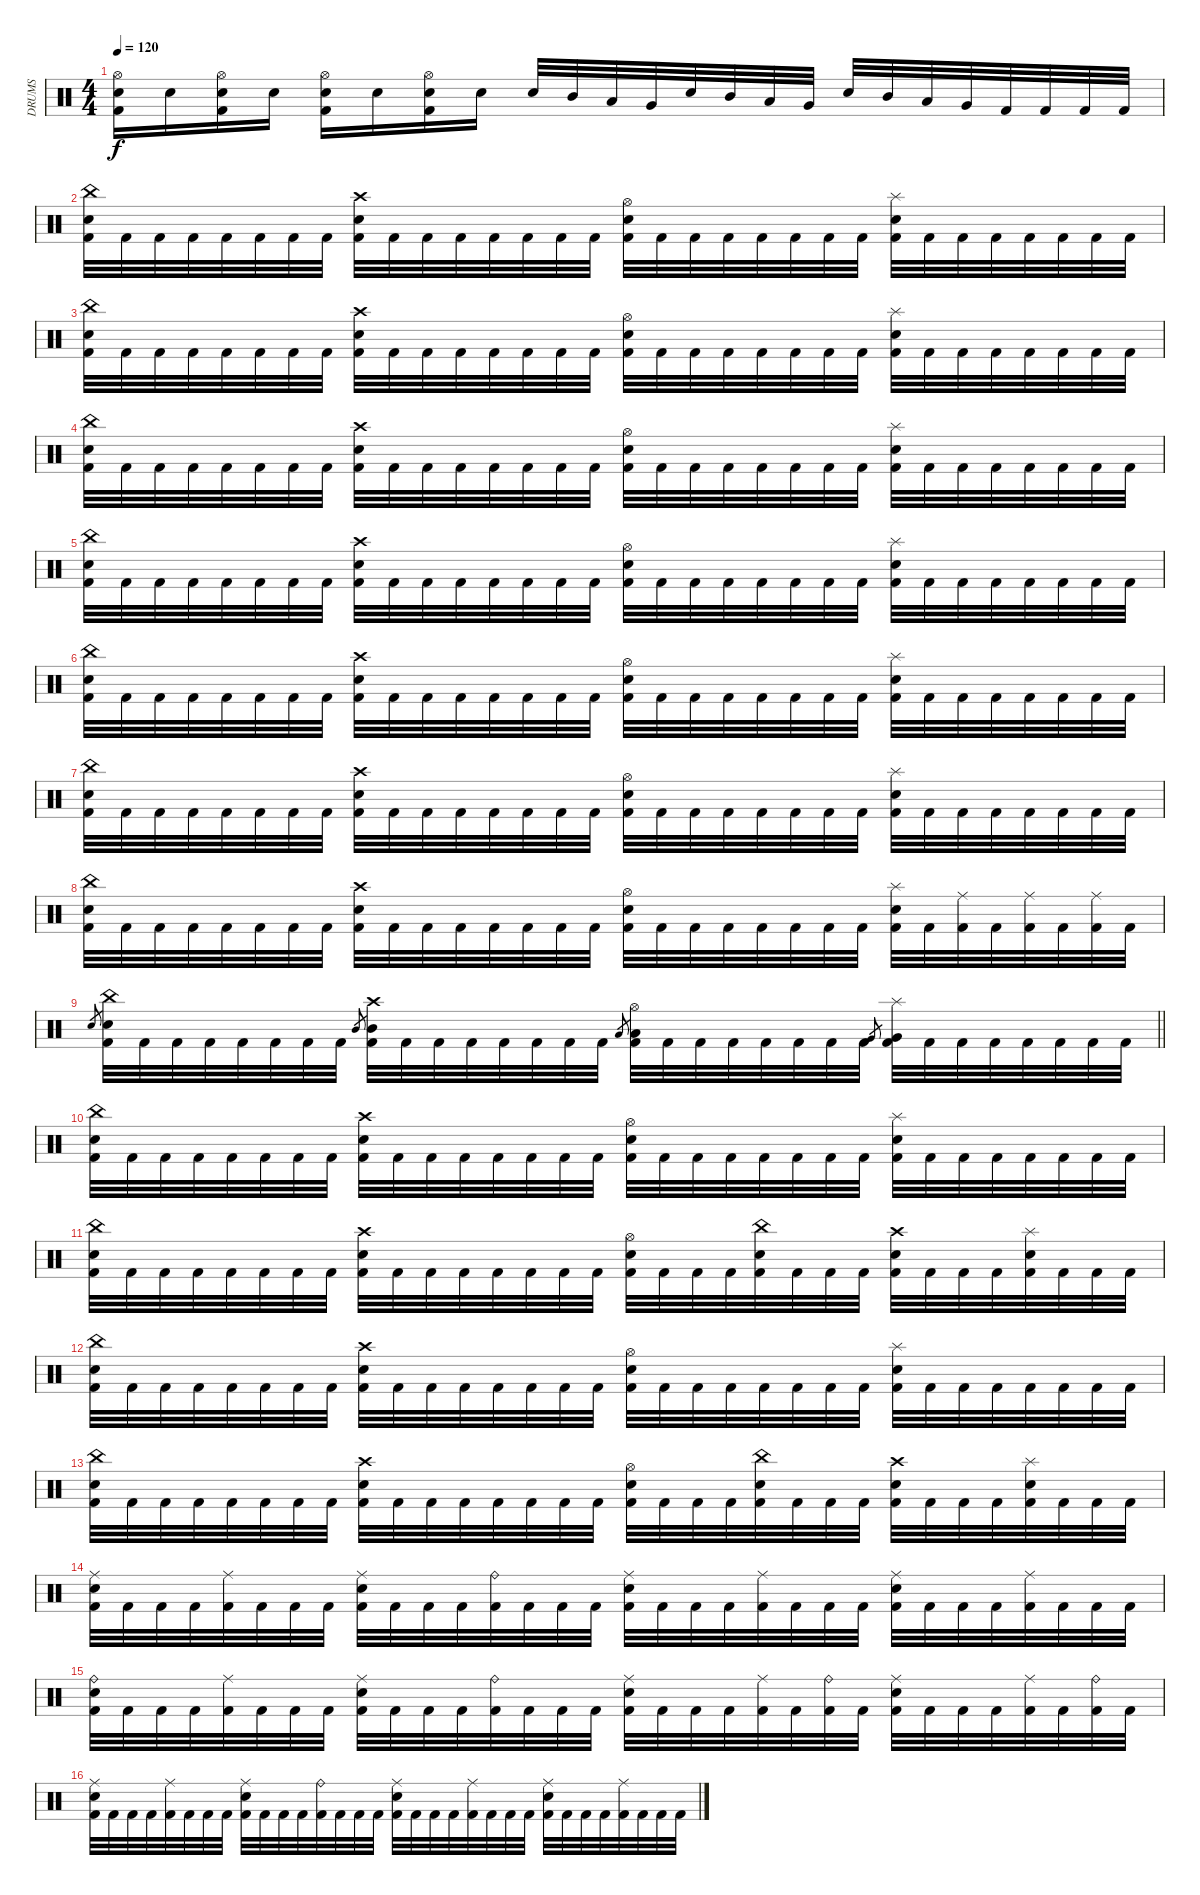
\track ("DRUMS" "DRUMS") {instrument percussion}
\staff {score}
\articulation defaults
\ts (4 4)
\tempo 120
\clef neutral
\ks c
("Hi-Hat (open)" "Electric Snare (hit)" "Kick (hit) 2").16{dy f} "Electric Snare (hit)".16 ("Hi-Hat (open)" "Electric Snare (hit)" "Kick (hit) 2").16 "Electric Snare (hit)".16 ("Hi-Hat (open)" "Electric Snare (hit)" "Kick (hit) 2").16 "Electric Snare (hit)".16 ("Hi-Hat (open)" "Electric Snare (hit)" "Kick (hit) 2").16 "Electric Snare (hit)".16 "Electric Snare (hit)".32 "Mid Tom (hit)".32 "Low Tom (hit)".32 "Very Low Tom (hit)".32 "Electric Snare (hit)".32 "Mid Tom (hit)".32 "Low Tom (hit)".32 "Very Low Tom (hit)".32 "Electric Snare (hit)".32 "Mid Tom (hit)".32 "Low Tom (hit)".32 "Very Low Tom (hit)".32 "Kick (hit) 2".32 "Kick (hit) 2".32 "Kick (hit) 2".32 "Kick (hit) 2".32 |
("China (hit)" "Electric Snare (hit)" "Kick (hit) 2").32 "Kick (hit) 2".32 "Kick (hit) 2".32 "Kick (hit) 2".32 "Kick (hit) 2".32 "Kick (hit) 2".32 "Kick (hit) 2".32 "Kick (hit) 2".32 ("Crash high (hit)" "Electric Snare (hit)" "Kick (hit) 2").32 "Kick (hit) 2".32 "Kick (hit) 2".32 "Kick (hit) 2".32 "Kick (hit) 2".32 "Kick (hit) 2".32 "Kick (hit) 2".32 "Kick (hit) 2".32 ("Hi-Hat (open)" "Electric Snare (hit)" "Kick (hit) 2").32 "Kick (hit) 2".32 "Kick (hit) 2".32 "Kick (hit) 2".32 "Kick (hit) 2".32 "Kick (hit) 2".32 "Kick (hit) 2".32 "Kick (hit) 2".32 ("Splash (hit)" "Electric Snare (hit)" "Kick (hit) 2").32 "Kick (hit) 2".32 "Kick (hit) 2".32 "Kick (hit) 2".32 "Kick (hit) 2".32 "Kick (hit) 2".32 "Kick (hit) 2".32 "Kick (hit) 2".32 |
("China (hit)" "Electric Snare (hit)" "Kick (hit) 2").32 "Kick (hit) 2".32 "Kick (hit) 2".32 "Kick (hit) 2".32 "Kick (hit) 2".32 "Kick (hit) 2".32 "Kick (hit) 2".32 "Kick (hit) 2".32 ("Crash high (hit)" "Electric Snare (hit)" "Kick (hit) 2").32 "Kick (hit) 2".32 "Kick (hit) 2".32 "Kick (hit) 2".32 "Kick (hit) 2".32 "Kick (hit) 2".32 "Kick (hit) 2".32 "Kick (hit) 2".32 ("Hi-Hat (open)" "Electric Snare (hit)" "Kick (hit) 2").32 "Kick (hit) 2".32 "Kick (hit) 2".32 "Kick (hit) 2".32 "Kick (hit) 2".32 "Kick (hit) 2".32 "Kick (hit) 2".32 "Kick (hit) 2".32 ("Splash (hit)" "Electric Snare (hit)" "Kick (hit) 2").32 "Kick (hit) 2".32 "Kick (hit) 2".32 "Kick (hit) 2".32 "Kick (hit) 2".32 "Kick (hit) 2".32 "Kick (hit) 2".32 "Kick (hit) 2".32 |
("China (hit)" "Electric Snare (hit)" "Kick (hit) 2").32 "Kick (hit) 2".32 "Kick (hit) 2".32 "Kick (hit) 2".32 "Kick (hit) 2".32 "Kick (hit) 2".32 "Kick (hit) 2".32 "Kick (hit) 2".32 ("Crash high (hit)" "Electric Snare (hit)" "Kick (hit) 2").32 "Kick (hit) 2".32 "Kick (hit) 2".32 "Kick (hit) 2".32 "Kick (hit) 2".32 "Kick (hit) 2".32 "Kick (hit) 2".32 "Kick (hit) 2".32 ("Hi-Hat (open)" "Electric Snare (hit)" "Kick (hit) 2").32 "Kick (hit) 2".32 "Kick (hit) 2".32 "Kick (hit) 2".32 "Kick (hit) 2".32 "Kick (hit) 2".32 "Kick (hit) 2".32 "Kick (hit) 2".32 ("Splash (hit)" "Electric Snare (hit)" "Kick (hit) 2").32 "Kick (hit) 2".32 "Kick (hit) 2".32 "Kick (hit) 2".32 "Kick (hit) 2".32 "Kick (hit) 2".32 "Kick (hit) 2".32 "Kick (hit) 2".32 |
("China (hit)" "Electric Snare (hit)" "Kick (hit) 2").32 "Kick (hit) 2".32 "Kick (hit) 2".32 "Kick (hit) 2".32 "Kick (hit) 2".32 "Kick (hit) 2".32 "Kick (hit) 2".32 "Kick (hit) 2".32 ("Crash high (hit)" "Electric Snare (hit)" "Kick (hit) 2").32 "Kick (hit) 2".32 "Kick (hit) 2".32 "Kick (hit) 2".32 "Kick (hit) 2".32 "Kick (hit) 2".32 "Kick (hit) 2".32 "Kick (hit) 2".32 ("Hi-Hat (open)" "Electric Snare (hit)" "Kick (hit) 2").32 "Kick (hit) 2".32 "Kick (hit) 2".32 "Kick (hit) 2".32 "Kick (hit) 2".32 "Kick (hit) 2".32 "Kick (hit) 2".32 "Kick (hit) 2".32 ("Splash (hit)" "Electric Snare (hit)" "Kick (hit) 2").32 "Kick (hit) 2".32 "Kick (hit) 2".32 "Kick (hit) 2".32 "Kick (hit) 2".32 "Kick (hit) 2".32 "Kick (hit) 2".32 "Kick (hit) 2".32 |
("China (hit)" "Electric Snare (hit)" "Kick (hit) 2").32 "Kick (hit) 2".32 "Kick (hit) 2".32 "Kick (hit) 2".32 "Kick (hit) 2".32 "Kick (hit) 2".32 "Kick (hit) 2".32 "Kick (hit) 2".32 ("Crash high (hit)" "Electric Snare (hit)" "Kick (hit) 2").32 "Kick (hit) 2".32 "Kick (hit) 2".32 "Kick (hit) 2".32 "Kick (hit) 2".32 "Kick (hit) 2".32 "Kick (hit) 2".32 "Kick (hit) 2".32 ("Hi-Hat (open)" "Electric Snare (hit)" "Kick (hit) 2").32 "Kick (hit) 2".32 "Kick (hit) 2".32 "Kick (hit) 2".32 "Kick (hit) 2".32 "Kick (hit) 2".32 "Kick (hit) 2".32 "Kick (hit) 2".32 ("Splash (hit)" "Electric Snare (hit)" "Kick (hit) 2").32 "Kick (hit) 2".32 "Kick (hit) 2".32 "Kick (hit) 2".32 "Kick (hit) 2".32 "Kick (hit) 2".32 "Kick (hit) 2".32 "Kick (hit) 2".32 |
("China (hit)" "Electric Snare (hit)" "Kick (hit) 2").32 "Kick (hit) 2".32 "Kick (hit) 2".32 "Kick (hit) 2".32 "Kick (hit) 2".32 "Kick (hit) 2".32 "Kick (hit) 2".32 "Kick (hit) 2".32 ("Crash high (hit)" "Electric Snare (hit)" "Kick (hit) 2").32 "Kick (hit) 2".32 "Kick (hit) 2".32 "Kick (hit) 2".32 "Kick (hit) 2".32 "Kick (hit) 2".32 "Kick (hit) 2".32 "Kick (hit) 2".32 ("Hi-Hat (open)" "Electric Snare (hit)" "Kick (hit) 2").32 "Kick (hit) 2".32 "Kick (hit) 2".32 "Kick (hit) 2".32 "Kick (hit) 2".32 "Kick (hit) 2".32 "Kick (hit) 2".32 "Kick (hit) 2".32 ("Splash (hit)" "Electric Snare (hit)" "Kick (hit) 2").32 "Kick (hit) 2".32 "Kick (hit) 2".32 "Kick (hit) 2".32 "Kick (hit) 2".32 "Kick (hit) 2".32 "Kick (hit) 2".32 "Kick (hit) 2".32 |
("China (hit)" "Electric Snare (hit)" "Kick (hit) 2").32 "Kick (hit) 2".32 "Kick (hit) 2".32 "Kick (hit) 2".32 "Kick (hit) 2".32 "Kick (hit) 2".32 "Kick (hit) 2".32 "Kick (hit) 2".32 ("Crash high (hit)" "Electric Snare (hit)" "Kick (hit) 2").32 "Kick (hit) 2".32 "Kick (hit) 2".32 "Kick (hit) 2".32 "Kick (hit) 2".32 "Kick (hit) 2".32 "Kick (hit) 2".32 "Kick (hit) 2".32 ("Hi-Hat (open)" "Electric Snare (hit)" "Kick (hit) 2").32 "Kick (hit) 2".32 "Kick (hit) 2".32 "Kick (hit) 2".32 "Kick (hit) 2".32 "Kick (hit) 2".32 "Kick (hit) 2".32 "Kick (hit) 2".32 ("Splash (hit)" "Electric Snare (hit)" "Kick (hit) 2").32 "Kick (hit) 2".32 ("Ride (middle)" "Kick (hit) 2").32 "Kick (hit) 2".32 ("Ride (middle)" "Kick (hit) 2").32 "Kick (hit) 2".32 ("Ride (middle)" "Kick (hit) 2").32 "Kick (hit) 2".32 |
\barLineRight lightlight "Electric Snare (hit)".8{gr}
("China (hit)" "Electric Snare (hit)" "Kick (hit) 2").32 "Kick (hit) 2".32 "Kick (hit) 2".32 "Kick (hit) 2".32 "Kick (hit) 2".32 "Kick (hit) 2".32 "Kick (hit) 2".32 "Kick (hit) 2".32 "Mid Tom (hit)".8{gr} ("Crash high (hit)" "Mid Tom (hit)" "Kick (hit) 2").32 "Kick (hit) 2".32 "Kick (hit) 2".32 "Kick (hit) 2".32 "Kick (hit) 2".32 "Kick (hit) 2".32 "Kick (hit) 2".32 "Kick (hit) 2".32 "Low Tom (hit)".8{gr} ("Hi-Hat (open)" "Low Tom (hit)" "Kick (hit) 2").32 "Kick (hit) 2".32 "Kick (hit) 2".32 "Kick (hit) 2".32 "Kick (hit) 2".32 "Kick (hit) 2".32 "Kick (hit) 2".32 "Kick (hit) 2".32 "Very Low Tom (hit)".8{gr} ("Splash (hit)" "Very Low Tom (hit)" "Kick (hit) 2").32 "Kick (hit) 2".32 "Kick (hit) 2".32 "Kick (hit) 2".32 "Kick (hit) 2".32 "Kick (hit) 2".32 "Kick (hit) 2".32 "Kick (hit) 2".32 |
("China (hit)" "Electric Snare (hit)" "Kick (hit) 2").32 "Kick (hit) 2".32 "Kick (hit) 2".32 "Kick (hit) 2".32 "Kick (hit) 2".32 "Kick (hit) 2".32 "Kick (hit) 2".32 "Kick (hit) 2".32 ("Crash high (hit)" "Electric Snare (hit)" "Kick (hit) 2").32 "Kick (hit) 2".32 "Kick (hit) 2".32 "Kick (hit) 2".32 "Kick (hit) 2".32 "Kick (hit) 2".32 "Kick (hit) 2".32 "Kick (hit) 2".32 ("Hi-Hat (open)" "Electric Snare (hit)" "Kick (hit) 2").32 "Kick (hit) 2".32 "Kick (hit) 2".32 "Kick (hit) 2".32 "Kick (hit) 2".32 "Kick (hit) 2".32 "Kick (hit) 2".32 "Kick (hit) 2".32 ("Splash (hit)" "Electric Snare (hit)" "Kick (hit) 2").32 "Kick (hit) 2".32 "Kick (hit) 2".32 "Kick (hit) 2".32 "Kick (hit) 2".32 "Kick (hit) 2".32 "Kick (hit) 2".32 "Kick (hit) 2".32 |
("China (hit)" "Electric Snare (hit)" "Kick (hit) 2").32 "Kick (hit) 2".32 "Kick (hit) 2".32 "Kick (hit) 2".32 "Kick (hit) 2".32 "Kick (hit) 2".32 "Kick (hit) 2".32 "Kick (hit) 2".32 ("Crash high (hit)" "Electric Snare (hit)" "Kick (hit) 2").32 "Kick (hit) 2".32 "Kick (hit) 2".32 "Kick (hit) 2".32 "Kick (hit) 2".32 "Kick (hit) 2".32 "Kick (hit) 2".32 "Kick (hit) 2".32 ("Hi-Hat (open)" "Electric Snare (hit)" "Kick (hit) 2").32 "Kick (hit) 2".32 "Kick (hit) 2".32 "Kick (hit) 2".32 ("China (hit)" "Electric Snare (hit)" "Kick (hit) 2").32 "Kick (hit) 2".32 "Kick (hit) 2".32 "Kick (hit) 2".32 ("Crash high (hit)" "Electric Snare (hit)" "Kick (hit) 2").32 "Kick (hit) 2".32 "Kick (hit) 2".32 "Kick (hit) 2".32 ("Splash (hit)" "Electric Snare (hit)" "Kick (hit) 2").32 "Kick (hit) 2".32 "Kick (hit) 2".32 "Kick (hit) 2".32 |
("China (hit)" "Electric Snare (hit)" "Kick (hit) 2").32 "Kick (hit) 2".32 "Kick (hit) 2".32 "Kick (hit) 2".32 "Kick (hit) 2".32 "Kick (hit) 2".32 "Kick (hit) 2".32 "Kick (hit) 2".32 ("Crash high (hit)" "Electric Snare (hit)" "Kick (hit) 2").32 "Kick (hit) 2".32 "Kick (hit) 2".32 "Kick (hit) 2".32 "Kick (hit) 2".32 "Kick (hit) 2".32 "Kick (hit) 2".32 "Kick (hit) 2".32 ("Hi-Hat (open)" "Electric Snare (hit)" "Kick (hit) 2").32 "Kick (hit) 2".32 "Kick (hit) 2".32 "Kick (hit) 2".32 "Kick (hit) 2".32 "Kick (hit) 2".32 "Kick (hit) 2".32 "Kick (hit) 2".32 ("Splash (hit)" "Electric Snare (hit)" "Kick (hit) 2").32 "Kick (hit) 2".32 "Kick (hit) 2".32 "Kick (hit) 2".32 "Kick (hit) 2".32 "Kick (hit) 2".32 "Kick (hit) 2".32 "Kick (hit) 2".32 |
("China (hit)" "Electric Snare (hit)" "Kick (hit) 2").32 "Kick (hit) 2".32 "Kick (hit) 2".32 "Kick (hit) 2".32 "Kick (hit) 2".32 "Kick (hit) 2".32 "Kick (hit) 2".32 "Kick (hit) 2".32 ("Crash high (hit)" "Electric Snare (hit)" "Kick (hit) 2").32 "Kick (hit) 2".32 "Kick (hit) 2".32 "Kick (hit) 2".32 "Kick (hit) 2".32 "Kick (hit) 2".32 "Kick (hit) 2".32 "Kick (hit) 2".32 ("Hi-Hat (open)" "Electric Snare (hit)" "Kick (hit) 2").32 "Kick (hit) 2".32 "Kick (hit) 2".32 "Kick (hit) 2".32 ("China (hit)" "Electric Snare (hit)" "Kick (hit) 2").32 "Kick (hit) 2".32 "Kick (hit) 2".32 "Kick (hit) 2".32 ("Crash high (hit)" "Electric Snare (hit)" "Kick (hit) 2").32 "Kick (hit) 2".32 "Kick (hit) 2".32 "Kick (hit) 2".32 ("Splash (hit)" "Electric Snare (hit)" "Kick (hit) 2").32 "Kick (hit) 2".32 "Kick (hit) 2".32 "Kick (hit) 2".32 |
("Ride (middle)" "Electric Snare (hit)" "Kick (hit) 2").32 "Kick (hit) 2".32 "Kick (hit) 2".32 "Kick (hit) 2".32 ("Ride (middle)" "Kick (hit) 2").32 "Kick (hit) 2".32 "Kick (hit) 2".32 "Kick (hit) 2".32 ("Ride (middle)" "Electric Snare (hit)" "Kick (hit) 2").32 "Kick (hit) 2".32 "Kick (hit) 2".32 "Kick (hit) 2".32 ("Ride (bell)" "Kick (hit) 2").32 "Kick (hit) 2".32 "Kick (hit) 2".32 "Kick (hit) 2".32 ("Ride (middle)" "Electric Snare (hit)" "Kick (hit) 2").32 "Kick (hit) 2".32 "Kick (hit) 2".32 "Kick (hit) 2".32 ("Ride (middle)" "Kick (hit) 2").32 "Kick (hit) 2".32 "Kick (hit) 2".32 "Kick (hit) 2".32 ("Ride (middle)" "Electric Snare (hit)" "Kick (hit) 2").32 "Kick (hit) 2".32 "Kick (hit) 2".32 "Kick (hit) 2".32 ("Ride (middle)" "Kick (hit) 2").32 "Kick (hit) 2".32 "Kick (hit) 2".32 "Kick (hit) 2".32 |
("Ride (bell)" "Electric Snare (hit)" "Kick (hit) 2").32 "Kick (hit) 2".32 "Kick (hit) 2".32 "Kick (hit) 2".32 ("Ride (middle)" "Kick (hit) 2").32 "Kick (hit) 2".32 "Kick (hit) 2".32 "Kick (hit) 2".32 ("Ride (middle)" "Electric Snare (hit)" "Kick (hit) 2").32 "Kick (hit) 2".32 "Kick (hit) 2".32 "Kick (hit) 2".32 ("Ride (bell)" "Kick (hit) 2").32 "Kick (hit) 2".32 "Kick (hit) 2".32 "Kick (hit) 2".32 ("Ride (middle)" "Electric Snare (hit)" "Kick (hit) 2").32 "Kick (hit) 2".32 "Kick (hit) 2".32 "Kick (hit) 2".32 ("Ride (middle)" "Kick (hit) 2").32 "Kick (hit) 2".32 ("Ride (bell)" "Kick (hit) 2").32 "Kick (hit) 2".32 ("Ride (middle)" "Electric Snare (hit)" "Kick (hit) 2").32 "Kick (hit) 2".32 "Kick (hit) 2".32 "Kick (hit) 2".32 ("Ride (middle)" "Kick (hit) 2").32 "Kick (hit) 2".32 ("Ride (bell)" "Kick (hit) 2").32 "Kick (hit) 2".32 |
("Ride (middle)" "Electric Snare (hit)" "Kick (hit) 2").32 "Kick (hit) 2".32 "Kick (hit) 2".32 "Kick (hit) 2".32 ("Ride (middle)" "Kick (hit) 2").32 "Kick (hit) 2".32 "Kick (hit) 2".32 "Kick (hit) 2".32 ("Ride (middle)" "Electric Snare (hit)" "Kick (hit) 2").32 "Kick (hit) 2".32 "Kick (hit) 2".32 "Kick (hit) 2".32 ("Ride (bell)" "Kick (hit) 2").32 "Kick (hit) 2".32 "Kick (hit) 2".32 "Kick (hit) 2".32 ("Ride (middle)" "Electric Snare (hit)" "Kick (hit) 2").32 "Kick (hit) 2".32 "Kick (hit) 2".32 "Kick (hit) 2".32 ("Ride (middle)" "Kick (hit) 2").32 "Kick (hit) 2".32 "Kick (hit) 2".32 "Kick (hit) 2".32 ("Ride (middle)" "Electric Snare (hit)" "Kick (hit) 2").32 "Kick (hit) 2".32 "Kick (hit) 2".32 "Kick (hit) 2".32 ("Ride (middle)" "Kick (hit) 2").32 "Kick (hit) 2".32 "Kick (hit) 2".32 "Kick (hit) 2".32
